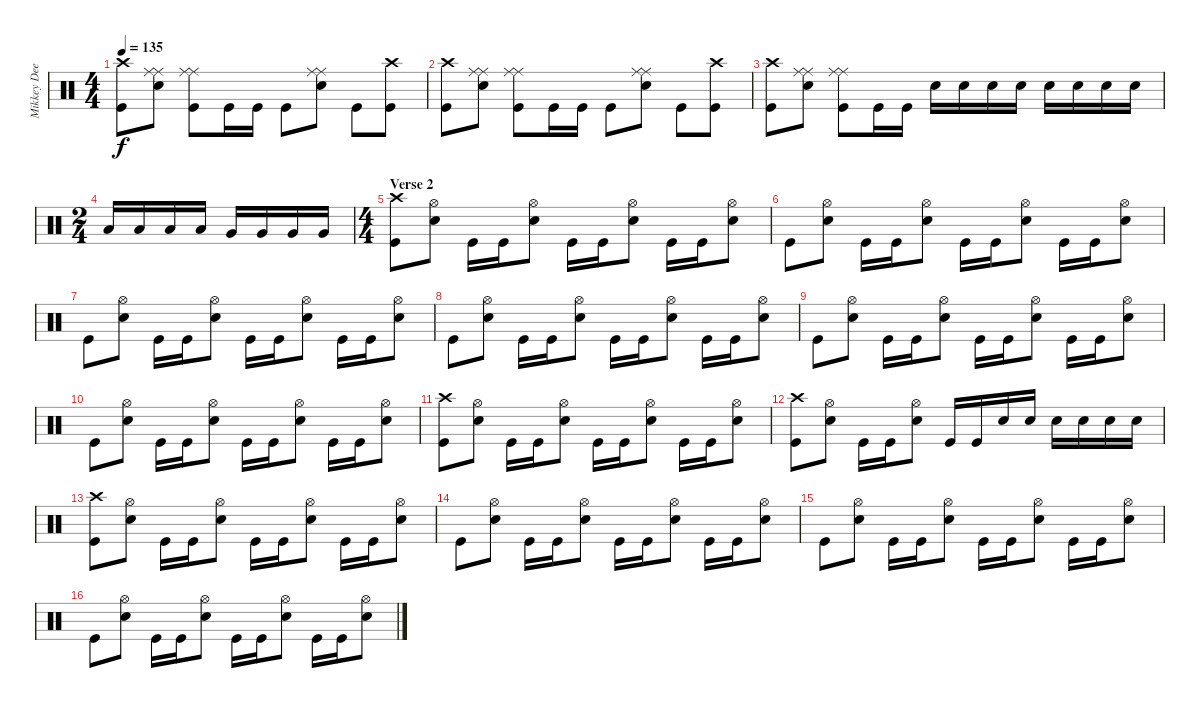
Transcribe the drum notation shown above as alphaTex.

\track ("Mikkey Dee - Drums" "Mikkey Dee") {instrument percussion}
\staff {score}
\articulation defaults
\ts (4 4)
\tempo 135
\clef neutral
\ks c
("Crash high (hit)" "Kick (hit)").8{dy f} ("Ride (middle)" "Ride (middle)" "Snare (hit) 2").8 ("Ride (middle)" "Ride (middle)" "Kick (hit)").8 "Kick (hit)".16 "Kick (hit)".16 "Kick (hit)".8 ("Ride (middle)" "Ride (middle)" "Snare (hit) 2").8 "Kick (hit)".8 ("Crash high (hit)" "Kick (hit)").8 |
("Crash high (hit)" "Kick (hit)").8 ("Ride (middle)" "Ride (middle)" "Snare (hit) 2").8 ("Ride (middle)" "Ride (middle)" "Kick (hit)").8 "Kick (hit)".16 "Kick (hit)".16 "Kick (hit)".8 ("Ride (middle)" "Ride (middle)" "Snare (hit) 2").8 "Kick (hit)".8 ("Crash high (hit)" "Kick (hit)").8 |
("Crash high (hit)" "Kick (hit)").8 ("Ride (middle)" "Ride (middle)" "Snare (hit) 2").8 ("Ride (middle)" "Ride (middle)" "Kick (hit)").8 "Kick (hit)".16 "Kick (hit)".16 "Snare (hit) 2".16 "Snare (hit) 2".16 "Snare (hit) 2".16 "Snare (hit) 2".16 "Snare (hit) 2".16 "Snare (hit) 2".16 "Snare (hit) 2".16 "Snare (hit) 2".16 |
\ts (2 4)
"Low Tom (hit)".16 "Low Tom (hit)".16 "Low Tom (hit)".16 "Low Tom (hit)".16 "Very Low Tom (hit)".16 "Very Low Tom (hit)".16 "Very Low Tom (hit)".16 "Very Low Tom (hit)".16 |
\ts (4 4)
\section ("" "Verse 2")
("Crash high (hit)" "Kick (hit)").8 ("Snare (hit) 2" "Hi-Hat (open)").8 "Kick (hit)".16 "Kick (hit)".16 ("Snare (hit) 2" "Hi-Hat (open)").8 "Kick (hit)".16 "Kick (hit)".16 ("Snare (hit) 2" "Hi-Hat (open)").8 "Kick (hit)".16 "Kick (hit)".16 ("Snare (hit) 2" "Hi-Hat (open)").8 |
"Kick (hit)".8 ("Snare (hit) 2" "Hi-Hat (open)").8 "Kick (hit)".16 "Kick (hit)".16 ("Snare (hit) 2" "Hi-Hat (open)").8 "Kick (hit)".16 "Kick (hit)".16 ("Snare (hit) 2" "Hi-Hat (open)").8 "Kick (hit)".16 "Kick (hit)".16 ("Snare (hit) 2" "Hi-Hat (open)").8 |
"Kick (hit)".8 ("Snare (hit) 2" "Hi-Hat (open)").8 "Kick (hit)".16 "Kick (hit)".16 ("Snare (hit) 2" "Hi-Hat (open)").8 "Kick (hit)".16 "Kick (hit)".16 ("Snare (hit) 2" "Hi-Hat (open)").8 "Kick (hit)".16 "Kick (hit)".16 ("Snare (hit) 2" "Hi-Hat (open)").8 |
"Kick (hit)".8 ("Snare (hit) 2" "Hi-Hat (open)").8 "Kick (hit)".16 "Kick (hit)".16 ("Snare (hit) 2" "Hi-Hat (open)").8 "Kick (hit)".16 "Kick (hit)".16 ("Snare (hit) 2" "Hi-Hat (open)").8 "Kick (hit)".16 "Kick (hit)".16 ("Snare (hit) 2" "Hi-Hat (open)").8 |
"Kick (hit)".8 ("Snare (hit) 2" "Hi-Hat (open)").8 "Kick (hit)".16 "Kick (hit)".16 ("Snare (hit) 2" "Hi-Hat (open)").8 "Kick (hit)".16 "Kick (hit)".16 ("Snare (hit) 2" "Hi-Hat (open)").8 "Kick (hit)".16 "Kick (hit)".16 ("Snare (hit) 2" "Hi-Hat (open)").8 |
"Kick (hit)".8 ("Snare (hit) 2" "Hi-Hat (open)").8 "Kick (hit)".16 "Kick (hit)".16 ("Snare (hit) 2" "Hi-Hat (open)").8 "Kick (hit)".16 "Kick (hit)".16 ("Snare (hit) 2" "Hi-Hat (open)").8 "Kick (hit)".16 "Kick (hit)".16 ("Snare (hit) 2" "Hi-Hat (open)").8 |
("Crash high (hit)" "Kick (hit)").8 ("Snare (hit) 2" "Hi-Hat (open)").8 "Kick (hit)".16 "Kick (hit)".16 ("Snare (hit) 2" "Hi-Hat (open)").8 "Kick (hit)".16 "Kick (hit)".16 ("Snare (hit) 2" "Hi-Hat (open)").8 "Kick (hit)".16 "Kick (hit)".16 ("Snare (hit) 2" "Hi-Hat (open)").8 |
("Crash high (hit)" "Kick (hit)").8 ("Snare (hit) 2" "Hi-Hat (open)").8 "Kick (hit)".16 "Kick (hit)".16 ("Snare (hit) 2" "Hi-Hat (open)").8 "Kick (hit)".16 "Kick (hit)".16 "Snare (hit) 2".16 "Snare (hit) 2".16 "Snare (hit) 2".16 "Snare (hit) 2".16 "Snare (hit) 2".16 "Snare (hit) 2".16 |
("Crash high (hit)" "Kick (hit)").8 ("Snare (hit) 2" "Hi-Hat (open)").8 "Kick (hit)".16 "Kick (hit)".16 ("Snare (hit) 2" "Hi-Hat (open)").8 "Kick (hit)".16 "Kick (hit)".16 ("Snare (hit) 2" "Hi-Hat (open)").8 "Kick (hit)".16 "Kick (hit)".16 ("Snare (hit) 2" "Hi-Hat (open)").8 |
"Kick (hit)".8 ("Snare (hit) 2" "Hi-Hat (open)").8 "Kick (hit)".16 "Kick (hit)".16 ("Snare (hit) 2" "Hi-Hat (open)").8 "Kick (hit)".16 "Kick (hit)".16 ("Snare (hit) 2" "Hi-Hat (open)").8 "Kick (hit)".16 "Kick (hit)".16 ("Snare (hit) 2" "Hi-Hat (open)").8 |
"Kick (hit)".8 ("Snare (hit) 2" "Hi-Hat (open)").8 "Kick (hit)".16 "Kick (hit)".16 ("Snare (hit) 2" "Hi-Hat (open)").8 "Kick (hit)".16 "Kick (hit)".16 ("Snare (hit) 2" "Hi-Hat (open)").8 "Kick (hit)".16 "Kick (hit)".16 ("Snare (hit) 2" "Hi-Hat (open)").8 |
"Kick (hit)".8 ("Snare (hit) 2" "Hi-Hat (open)").8 "Kick (hit)".16 "Kick (hit)".16 ("Snare (hit) 2" "Hi-Hat (open)").8 "Kick (hit)".16 "Kick (hit)".16 ("Snare (hit) 2" "Hi-Hat (open)").8 "Kick (hit)".16 "Kick (hit)".16 ("Snare (hit) 2" "Hi-Hat (open)").8
